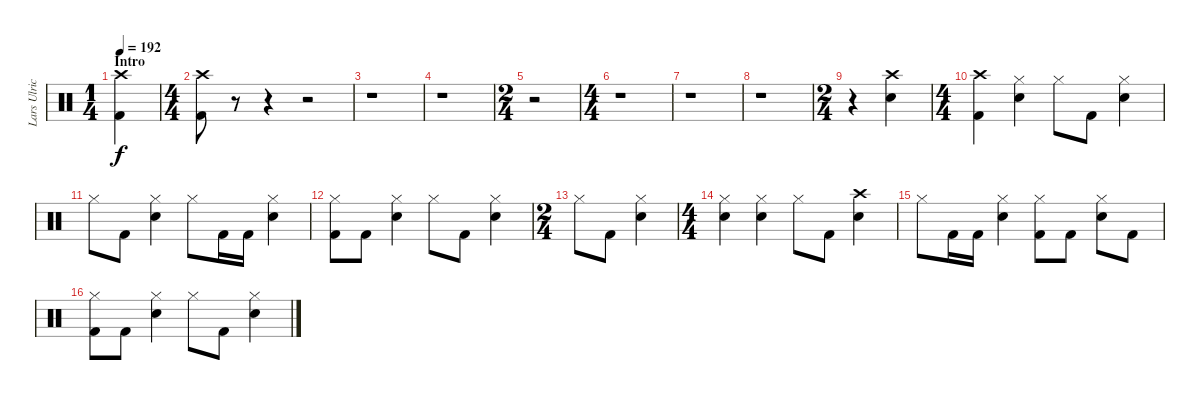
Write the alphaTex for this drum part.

\track ("Lars Ulrich - Drums" "Lars Ulric") {instrument percussion}
\staff {score}
\articulation defaults
\ts (1 4)
\section ("" "Intro")
\tempo 192
\clef neutral
\ks c
("Crash high (hit)" "Kick (hit) 2").4{dy f} |
\ts (4 4)
("Crash high (hit)" "Kick (hit) 2").8 r.8 r.4 r.2 |
r.1 |
r.1 |
\ts (2 4)
r.2 |
\ts (4 4)
r.1 |
r.1 |
r.1 |
\ts (2 4)
r.4 ("Crash high (hit)" "Snare (hit) 2").4 |
\ts (4 4)
("Crash high (hit)" "Kick (hit) 2").4 ("Hi-Hat (closed)" "Snare (hit) 2").4 "Hi-Hat (closed)".8 "Kick (hit) 2".8 ("Hi-Hat (closed)" "Snare (hit) 2").4 |
"Hi-Hat (closed)".8 "Kick (hit) 2".8 ("Hi-Hat (closed)" "Snare (hit) 2").4 "Hi-Hat (closed)".8 "Kick (hit) 2".16 "Kick (hit) 2".16 ("Hi-Hat (closed)" "Snare (hit) 2").4 |
("Hi-Hat (closed)" "Kick (hit) 2").8 "Kick (hit) 2".8 ("Hi-Hat (closed)" "Snare (hit) 2").4 "Hi-Hat (closed)".8 "Kick (hit) 2".8 ("Hi-Hat (closed)" "Snare (hit) 2").4 |
\ts (2 4)
"Hi-Hat (closed)".8 "Kick (hit) 2".8 ("Hi-Hat (closed)" "Snare (hit) 2").4 |
\ts (4 4)
("Hi-Hat (closed)" "Snare (hit) 2").4 ("Hi-Hat (closed)" "Snare (hit) 2").4 "Hi-Hat (closed)".8 "Kick (hit) 2".8 ("Crash high (hit)" "Snare (hit) 2").4 |
"Hi-Hat (closed)".8 "Kick (hit) 2".16 "Kick (hit) 2".16 ("Hi-Hat (closed)" "Snare (hit) 2").4 ("Hi-Hat (closed)" "Kick (hit) 2").8 "Kick (hit) 2".8 ("Hi-Hat (closed)" "Snare (hit) 2").8 "Kick (hit) 2".8 |
("Hi-Hat (closed)" "Kick (hit) 2").8 "Kick (hit) 2".8 ("Hi-Hat (closed)" "Snare (hit) 2").4 "Hi-Hat (closed)".8 "Kick (hit) 2".8 ("Hi-Hat (closed)" "Snare (hit) 2").4
